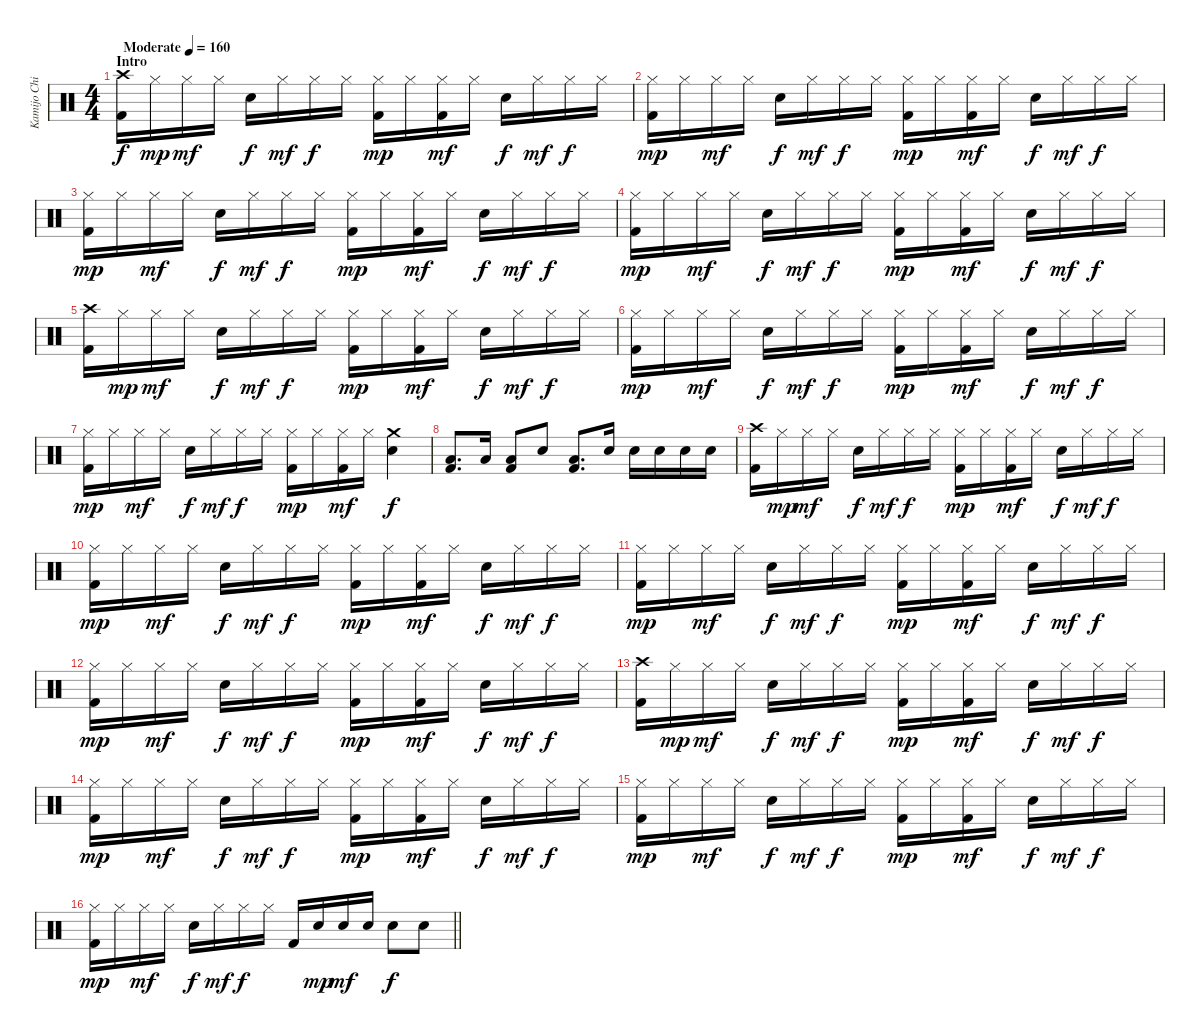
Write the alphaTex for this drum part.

\track ("Kamijo Chihiro" "Kamijo Chi") {instrument percussion}
\staff {score}
\articulation defaults
\ts (4 4)
\section ("" "Intro")
\tempo (160 "Moderate")
\clef neutral
\ks c
("Crash high (hit)" "Kick (hit) 2").16{dy f} "Hi-Hat (closed)".16{dy mp} "Hi-Hat (closed)".16{dy mf} "Hi-Hat (closed)".16 "Snare (hit) 2".16{dy f} "Hi-Hat (closed)".16{dy mf} "Hi-Hat (closed)".16{dy f} "Hi-Hat (closed)".16 ("Hi-Hat (closed)" "Kick (hit) 2").16{dy mp} "Hi-Hat (closed)".16 ("Hi-Hat (closed)" "Kick (hit) 2").16{dy mf} "Hi-Hat (closed)".16 "Snare (hit) 2".16{dy f} "Hi-Hat (closed)".16{dy mf} "Hi-Hat (closed)".16{dy f} "Hi-Hat (closed)".16 |
("Hi-Hat (closed)" "Kick (hit) 2").16{dy mp} "Hi-Hat (closed)".16 "Hi-Hat (closed)".16{dy mf} "Hi-Hat (closed)".16 "Snare (hit) 2".16{dy f} "Hi-Hat (closed)".16{dy mf} "Hi-Hat (closed)".16{dy f} "Hi-Hat (closed)".16 ("Hi-Hat (closed)" "Kick (hit) 2").16{dy mp} "Hi-Hat (closed)".16 ("Hi-Hat (closed)" "Kick (hit) 2").16{dy mf} "Hi-Hat (closed)".16 "Snare (hit) 2".16{dy f} "Hi-Hat (closed)".16{dy mf} "Hi-Hat (closed)".16{dy f} "Hi-Hat (closed)".16 |
("Hi-Hat (closed)" "Kick (hit) 2").16{dy mp} "Hi-Hat (closed)".16 "Hi-Hat (closed)".16{dy mf} "Hi-Hat (closed)".16 "Snare (hit) 2".16{dy f} "Hi-Hat (closed)".16{dy mf} "Hi-Hat (closed)".16{dy f} "Hi-Hat (closed)".16 ("Hi-Hat (closed)" "Kick (hit) 2").16{dy mp} "Hi-Hat (closed)".16 ("Hi-Hat (closed)" "Kick (hit) 2").16{dy mf} "Hi-Hat (closed)".16 "Snare (hit) 2".16{dy f} "Hi-Hat (closed)".16{dy mf} "Hi-Hat (closed)".16{dy f} "Hi-Hat (closed)".16 |
("Hi-Hat (closed)" "Kick (hit) 2").16{dy mp} "Hi-Hat (closed)".16 "Hi-Hat (closed)".16{dy mf} "Hi-Hat (closed)".16 "Snare (hit) 2".16{dy f} "Hi-Hat (closed)".16{dy mf} "Hi-Hat (closed)".16{dy f} "Hi-Hat (closed)".16 ("Hi-Hat (closed)" "Kick (hit) 2").16{dy mp} "Hi-Hat (closed)".16 ("Hi-Hat (closed)" "Kick (hit) 2").16{dy mf} "Hi-Hat (closed)".16 "Snare (hit) 2".16{dy f} "Hi-Hat (closed)".16{dy mf} "Hi-Hat (closed)".16{dy f} "Hi-Hat (closed)".16 |
("Crash high (hit)" "Kick (hit) 2").16 "Hi-Hat (closed)".16{dy mp} "Hi-Hat (closed)".16{dy mf} "Hi-Hat (closed)".16 "Snare (hit) 2".16{dy f} "Hi-Hat (closed)".16{dy mf} "Hi-Hat (closed)".16{dy f} "Hi-Hat (closed)".16 ("Hi-Hat (closed)" "Kick (hit) 2").16{dy mp} "Hi-Hat (closed)".16 ("Hi-Hat (closed)" "Kick (hit) 2").16{dy mf} "Hi-Hat (closed)".16 "Snare (hit) 2".16{dy f} "Hi-Hat (closed)".16{dy mf} "Hi-Hat (closed)".16{dy f} "Hi-Hat (closed)".16 |
("Hi-Hat (closed)" "Kick (hit) 2").16{dy mp} "Hi-Hat (closed)".16 "Hi-Hat (closed)".16{dy mf} "Hi-Hat (closed)".16 "Snare (hit) 2".16{dy f} "Hi-Hat (closed)".16{dy mf} "Hi-Hat (closed)".16{dy f} "Hi-Hat (closed)".16 ("Hi-Hat (closed)" "Kick (hit) 2").16{dy mp} "Hi-Hat (closed)".16 ("Hi-Hat (closed)" "Kick (hit) 2").16{dy mf} "Hi-Hat (closed)".16 "Snare (hit) 2".16{dy f} "Hi-Hat (closed)".16{dy mf} "Hi-Hat (closed)".16{dy f} "Hi-Hat (closed)".16 |
("Hi-Hat (closed)" "Kick (hit) 2").16{dy mp} "Hi-Hat (closed)".16 "Hi-Hat (closed)".16{dy mf} "Hi-Hat (closed)".16 "Snare (hit) 2".16{dy f} "Hi-Hat (closed)".16{dy mf} "Hi-Hat (closed)".16{dy f} "Hi-Hat (closed)".16 ("Hi-Hat (closed)" "Kick (hit) 2").16{dy mp} "Hi-Hat (closed)".16 ("Hi-Hat (closed)" "Kick (hit) 2").16{dy mf} "Hi-Hat (closed)".16 ("Crash medium (hit)" "Snare (hit) 2").4{dy f} |
("Low Floor Tom (hit)" "Kick (hit) 2").8{d} "Low Tom (hit)".16 ("Low Floor Tom (hit)" "Kick (hit) 2").8 "Snare (hit) 2".8 ("Low Floor Tom (hit)" "Kick (hit) 2").8{d} "Snare (hit) 2".16 "Snare (hit) 2".16 "Snare (hit) 2".16 "Snare (hit) 2".16 "Snare (hit) 2".16 |
("Crash high (hit)" "Kick (hit) 2").16 "Hi-Hat (closed)".16{dy mp} "Hi-Hat (closed)".16{dy mf} "Hi-Hat (closed)".16 "Snare (hit) 2".16{dy f} "Hi-Hat (closed)".16{dy mf} "Hi-Hat (closed)".16{dy f} "Hi-Hat (closed)".16 ("Hi-Hat (closed)" "Kick (hit) 2").16{dy mp} "Hi-Hat (closed)".16 ("Hi-Hat (closed)" "Kick (hit) 2").16{dy mf} "Hi-Hat (closed)".16 "Snare (hit) 2".16{dy f} "Hi-Hat (closed)".16{dy mf} "Hi-Hat (closed)".16{dy f} "Hi-Hat (closed)".16 |
("Hi-Hat (closed)" "Kick (hit) 2").16{dy mp} "Hi-Hat (closed)".16 "Hi-Hat (closed)".16{dy mf} "Hi-Hat (closed)".16 "Snare (hit) 2".16{dy f} "Hi-Hat (closed)".16{dy mf} "Hi-Hat (closed)".16{dy f} "Hi-Hat (closed)".16 ("Hi-Hat (closed)" "Kick (hit) 2").16{dy mp} "Hi-Hat (closed)".16 ("Hi-Hat (closed)" "Kick (hit) 2").16{dy mf} "Hi-Hat (closed)".16 "Snare (hit) 2".16{dy f} "Hi-Hat (closed)".16{dy mf} "Hi-Hat (closed)".16{dy f} "Hi-Hat (closed)".16 |
("Hi-Hat (closed)" "Kick (hit) 2").16{dy mp} "Hi-Hat (closed)".16 "Hi-Hat (closed)".16{dy mf} "Hi-Hat (closed)".16 "Snare (hit) 2".16{dy f} "Hi-Hat (closed)".16{dy mf} "Hi-Hat (closed)".16{dy f} "Hi-Hat (closed)".16 ("Hi-Hat (closed)" "Kick (hit) 2").16{dy mp} "Hi-Hat (closed)".16 ("Hi-Hat (closed)" "Kick (hit) 2").16{dy mf} "Hi-Hat (closed)".16 "Snare (hit) 2".16{dy f} "Hi-Hat (closed)".16{dy mf} "Hi-Hat (closed)".16{dy f} "Hi-Hat (closed)".16 |
("Hi-Hat (closed)" "Kick (hit) 2").16{dy mp} "Hi-Hat (closed)".16 "Hi-Hat (closed)".16{dy mf} "Hi-Hat (closed)".16 "Snare (hit) 2".16{dy f} "Hi-Hat (closed)".16{dy mf} "Hi-Hat (closed)".16{dy f} "Hi-Hat (closed)".16 ("Hi-Hat (closed)" "Kick (hit) 2").16{dy mp} "Hi-Hat (closed)".16 ("Hi-Hat (closed)" "Kick (hit) 2").16{dy mf} "Hi-Hat (closed)".16 "Snare (hit) 2".16{dy f} "Hi-Hat (closed)".16{dy mf} "Hi-Hat (closed)".16{dy f} "Hi-Hat (closed)".16 |
("Crash high (hit)" "Kick (hit) 2").16 "Hi-Hat (closed)".16{dy mp} "Hi-Hat (closed)".16{dy mf} "Hi-Hat (closed)".16 "Snare (hit) 2".16{dy f} "Hi-Hat (closed)".16{dy mf} "Hi-Hat (closed)".16{dy f} "Hi-Hat (closed)".16 ("Hi-Hat (closed)" "Kick (hit) 2").16{dy mp} "Hi-Hat (closed)".16 ("Hi-Hat (closed)" "Kick (hit) 2").16{dy mf} "Hi-Hat (closed)".16 "Snare (hit) 2".16{dy f} "Hi-Hat (closed)".16{dy mf} "Hi-Hat (closed)".16{dy f} "Hi-Hat (closed)".16 |
("Hi-Hat (closed)" "Kick (hit) 2").16{dy mp} "Hi-Hat (closed)".16 "Hi-Hat (closed)".16{dy mf} "Hi-Hat (closed)".16 "Snare (hit) 2".16{dy f} "Hi-Hat (closed)".16{dy mf} "Hi-Hat (closed)".16{dy f} "Hi-Hat (closed)".16 ("Hi-Hat (closed)" "Kick (hit) 2").16{dy mp} "Hi-Hat (closed)".16 ("Hi-Hat (closed)" "Kick (hit) 2").16{dy mf} "Hi-Hat (closed)".16 "Snare (hit) 2".16{dy f} "Hi-Hat (closed)".16{dy mf} "Hi-Hat (closed)".16{dy f} "Hi-Hat (closed)".16 |
("Hi-Hat (closed)" "Kick (hit) 2").16{dy mp} "Hi-Hat (closed)".16 "Hi-Hat (closed)".16{dy mf} "Hi-Hat (closed)".16 "Snare (hit) 2".16{dy f} "Hi-Hat (closed)".16{dy mf} "Hi-Hat (closed)".16{dy f} "Hi-Hat (closed)".16 ("Hi-Hat (closed)" "Kick (hit) 2").16{dy mp} "Hi-Hat (closed)".16 ("Hi-Hat (closed)" "Kick (hit) 2").16{dy mf} "Hi-Hat (closed)".16 "Snare (hit) 2".16{dy f} "Hi-Hat (closed)".16{dy mf} "Hi-Hat (closed)".16{dy f} "Hi-Hat (closed)".16 |
\barLineRight lightlight
("Hi-Hat (closed)" "Kick (hit) 2").16{dy mp} "Hi-Hat (closed)".16 "Hi-Hat (closed)".16{dy mf} "Hi-Hat (closed)".16 "Snare (hit) 2".16{dy f} "Hi-Hat (closed)".16{dy mf} "Hi-Hat (closed)".16{dy f} "Hi-Hat (closed)".16 "Kick (hit) 2".16 "Snare (hit) 2".16{dy mp} "Snare (hit) 2".16{dy mf} "Snare (hit) 2".16 "Snare (hit) 2".8{dy f} "Snare (hit) 2".8
